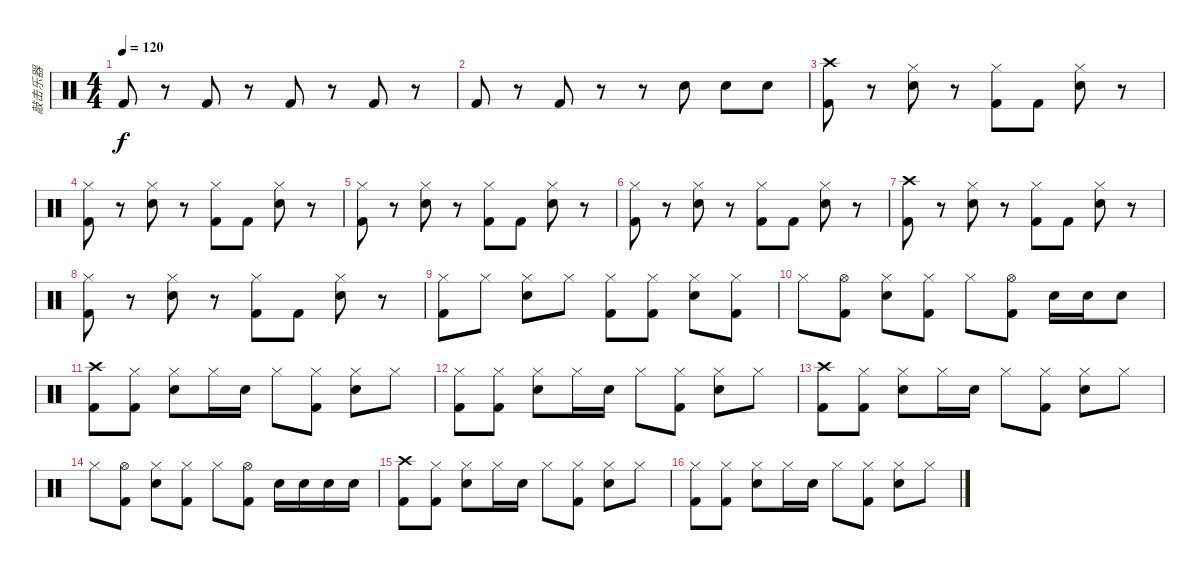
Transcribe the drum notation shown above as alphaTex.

\track ("敲击乐器" "敲击乐器") {instrument percussion}
\staff {score}
\articulation defaults
\ts (4 4)
\tempo 120
\clef neutral
\ks c "Kick (hit) 2".8{dy f}
r.8 "Kick (hit) 2".8 r.8 "Kick (hit) 2".8 r.8 "Kick (hit) 2".8 r.8 |
"Kick (hit) 2".8 r.8 "Kick (hit) 2".8 r.8 r.8 "Snare (hit) 2".8 "Snare (hit) 2".8 "Snare (hit) 2".8 |
("Crash high (hit)" "Kick (hit) 2").8 r.8 ("Hi-Hat (closed)" "Snare (hit) 2").8 r.8 ("Hi-Hat (closed)" "Kick (hit) 2").8 "Kick (hit) 2".8 ("Hi-Hat (closed)" "Snare (hit) 2").8 r.8 |
("Hi-Hat (closed)" "Kick (hit) 2").8 r.8 ("Hi-Hat (closed)" "Snare (hit) 2").8 r.8 ("Hi-Hat (closed)" "Kick (hit) 2").8 "Kick (hit) 2".8 ("Hi-Hat (closed)" "Snare (hit) 2").8 r.8 |
("Hi-Hat (closed)" "Kick (hit) 2").8 r.8 ("Hi-Hat (closed)" "Snare (hit) 2").8 r.8 ("Hi-Hat (closed)" "Kick (hit) 2").8 "Kick (hit) 2".8 ("Hi-Hat (closed)" "Snare (hit) 2").8 r.8 |
("Hi-Hat (closed)" "Kick (hit) 2").8 r.8 ("Hi-Hat (closed)" "Snare (hit) 2").8 r.8 ("Hi-Hat (closed)" "Kick (hit) 2").8 "Kick (hit) 2".8 ("Hi-Hat (closed)" "Snare (hit) 2").8 r.8 |
("Crash high (hit)" "Kick (hit) 2").8 r.8 ("Hi-Hat (closed)" "Snare (hit) 2").8 r.8 ("Hi-Hat (closed)" "Kick (hit) 2").8 "Kick (hit) 2".8 ("Hi-Hat (closed)" "Snare (hit) 2").8 r.8 |
("Hi-Hat (closed)" "Kick (hit) 2").8 r.8 ("Hi-Hat (closed)" "Snare (hit) 2").8 r.8 ("Hi-Hat (closed)" "Kick (hit) 2").8 "Kick (hit) 2".8 ("Hi-Hat (closed)" "Snare (hit) 2").8 r.8 |
("Hi-Hat (closed)" "Kick (hit) 2").8 "Hi-Hat (closed)".8 ("Hi-Hat (closed)" "Snare (hit) 2").8 "Hi-Hat (closed)".8 ("Hi-Hat (closed)" "Kick (hit) 2").8 ("Hi-Hat (closed)" "Kick (hit) 2").8 ("Hi-Hat (closed)" "Snare (hit) 2").8 ("Hi-Hat (closed)" "Kick (hit) 2").8 |
"Hi-Hat (closed)".8 ("Hi-Hat (open)" "Kick (hit) 2").8 ("Hi-Hat (closed)" "Snare (hit) 2").8 ("Hi-Hat (closed)" "Kick (hit) 2").8 "Hi-Hat (closed)".8 ("Hi-Hat (open)" "Kick (hit) 2").8 "Snare (hit) 2".16 "Snare (hit) 2".16 "Snare (hit) 2".8 |
("Crash high (hit)" "Kick (hit) 2").8 ("Hi-Hat (closed)" "Kick (hit) 2").8 ("Hi-Hat (closed)" "Snare (hit) 2").8 "Hi-Hat (closed)".16 "Snare (hit) 2".16 "Hi-Hat (closed)".8 ("Hi-Hat (closed)" "Kick (hit) 2").8 ("Hi-Hat (closed)" "Snare (hit) 2").8 "Hi-Hat (closed)".8 |
("Hi-Hat (closed)" "Kick (hit) 2").8 ("Hi-Hat (closed)" "Kick (hit) 2").8 ("Hi-Hat (closed)" "Snare (hit) 2").8 "Hi-Hat (closed)".16 "Snare (hit) 2".16 "Hi-Hat (closed)".8 ("Hi-Hat (closed)" "Kick (hit) 2").8 ("Hi-Hat (closed)" "Snare (hit) 2").8 "Hi-Hat (closed)".8 |
("Crash high (hit)" "Kick (hit) 2").8 ("Hi-Hat (closed)" "Kick (hit) 2").8 ("Hi-Hat (closed)" "Snare (hit) 2").8 "Hi-Hat (closed)".16 "Snare (hit) 2".16 "Hi-Hat (closed)".8 ("Hi-Hat (closed)" "Kick (hit) 2").8 ("Hi-Hat (closed)" "Snare (hit) 2").8 "Hi-Hat (closed)".8 |
"Hi-Hat (closed)".8 ("Hi-Hat (open)" "Kick (hit) 2").8 ("Hi-Hat (closed)" "Snare (hit) 2").8 ("Hi-Hat (closed)" "Kick (hit) 2").8 "Hi-Hat (closed)".8 ("Hi-Hat (open)" "Kick (hit) 2").8 "Snare (hit) 2".16 "Snare (hit) 2".16 "Snare (hit) 2".16 "Snare (hit) 2".16 |
("Crash high (hit)" "Kick (hit) 2").8 ("Hi-Hat (closed)" "Kick (hit) 2").8 ("Hi-Hat (closed)" "Snare (hit) 2").8 "Hi-Hat (closed)".16 "Snare (hit) 2".16 "Hi-Hat (closed)".8 ("Hi-Hat (closed)" "Kick (hit) 2").8 ("Hi-Hat (closed)" "Snare (hit) 2").8 "Hi-Hat (closed)".8 |
("Hi-Hat (closed)" "Kick (hit) 2").8 ("Hi-Hat (closed)" "Kick (hit) 2").8 ("Hi-Hat (closed)" "Snare (hit) 2").8 "Hi-Hat (closed)".16 "Snare (hit) 2".16 "Hi-Hat (closed)".8 ("Hi-Hat (closed)" "Kick (hit) 2").8 ("Hi-Hat (closed)" "Snare (hit) 2").8 "Hi-Hat (closed)".8
